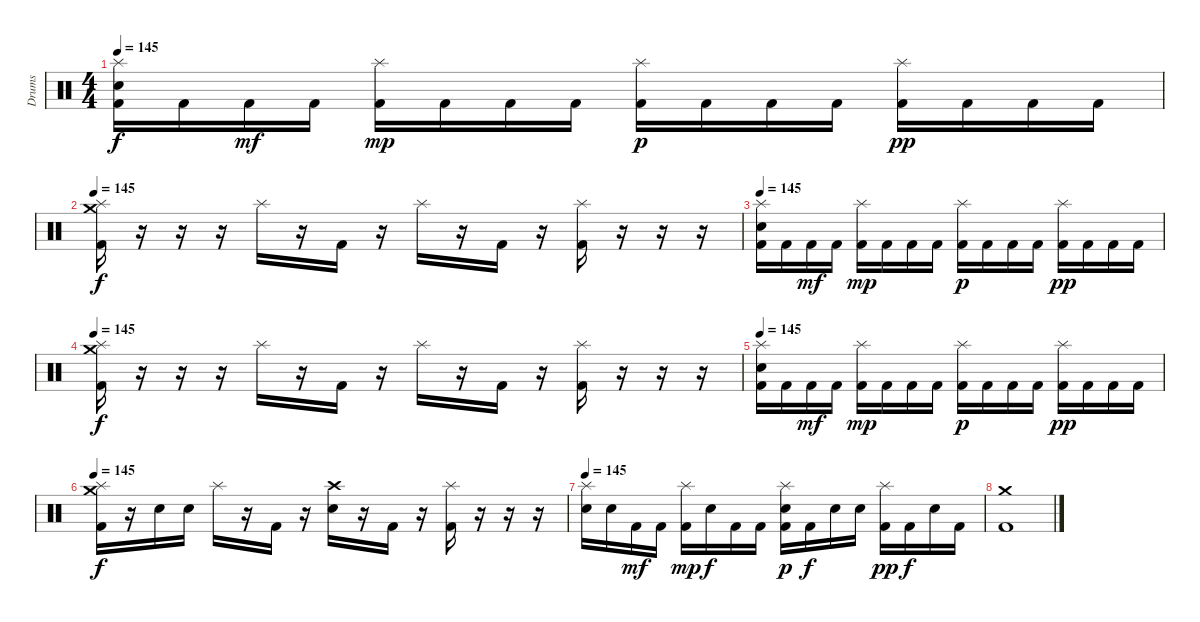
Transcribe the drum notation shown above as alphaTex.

\track ("Drums" "Drums") {instrument percussion}
\staff {score}
\articulation defaults
\ts (4 4)
\tempo 145
\clef neutral
\ks c
("Splash (hit)" "Electric Snare (hit)" "Kick (hit) 2").16{dy f} "Kick (hit) 2".16 "Kick (hit) 2".16{dy mf} "Kick (hit) 2".16 ("Splash (hit)" "Kick (hit) 2").16{dy mp} "Kick (hit) 2".16 "Kick (hit) 2".16 "Kick (hit) 2".16 ("Splash (hit)" "Kick (hit) 2").16{dy p} "Kick (hit) 2".16 "Kick (hit) 2".16 "Kick (hit) 2".16 ("Splash (hit)" "Kick (hit) 2").16{dy pp} "Kick (hit) 2".16 "Kick (hit) 2".16 "Kick (hit) 2".16 |
\tempo 145
("Crash medium (hit)" "Splash (hit)" "Kick (hit) 2").16{dy f} r.16 r.16 r.16 "Splash (hit)".16 r.16 "Kick (hit) 2".16 r.16 "Splash (hit)".16 r.16 "Kick (hit) 2".16 r.16 ("Splash (hit)" "Kick (hit) 2").16 r.16 r.16 r.16 |
\tempo 145
("Splash (hit)" "Electric Snare (hit)" "Kick (hit) 2").16 "Kick (hit) 2".16 "Kick (hit) 2".16{dy mf} "Kick (hit) 2".16 ("Splash (hit)" "Kick (hit) 2").16{dy mp} "Kick (hit) 2".16 "Kick (hit) 2".16 "Kick (hit) 2".16 ("Splash (hit)" "Kick (hit) 2").16{dy p} "Kick (hit) 2".16 "Kick (hit) 2".16 "Kick (hit) 2".16 ("Splash (hit)" "Kick (hit) 2").16{dy pp} "Kick (hit) 2".16 "Kick (hit) 2".16 "Kick (hit) 2".16 |
\tempo 145
("Crash medium (hit)" "Splash (hit)" "Kick (hit) 2").16{dy f} r.16 r.16 r.16 "Splash (hit)".16 r.16 "Kick (hit) 2".16 r.16 "Splash (hit)".16 r.16 "Kick (hit) 2".16 r.16 ("Splash (hit)" "Kick (hit) 2").16 r.16 r.16 r.16 |
\tempo 145
("Splash (hit)" "Electric Snare (hit)" "Kick (hit) 2").16 "Kick (hit) 2".16 "Kick (hit) 2".16{dy mf} "Kick (hit) 2".16 ("Splash (hit)" "Kick (hit) 2").16{dy mp} "Kick (hit) 2".16 "Kick (hit) 2".16 "Kick (hit) 2".16 ("Splash (hit)" "Kick (hit) 2").16{dy p} "Kick (hit) 2".16 "Kick (hit) 2".16 "Kick (hit) 2".16 ("Splash (hit)" "Kick (hit) 2").16{dy pp} "Kick (hit) 2".16 "Kick (hit) 2".16 "Kick (hit) 2".16 |
\tempo 145
("Crash medium (hit)" "Splash (hit)" "Kick (hit) 2").16{dy f} r.16 "Electric Snare (hit)".16 "Electric Snare (hit)".16 "Splash (hit)".16 r.16 "Kick (hit) 2".16 r.16 ("Crash high (hit)" "Electric Snare (hit)").16 r.16 "Kick (hit) 2".16 r.16 ("Splash (hit)" "Kick (hit) 2").16 r.16 r.16 r.16 |
\tempo 145
("Splash (hit)" "Electric Snare (hit)").16 "Electric Snare (hit)".16 "Kick (hit) 2".16{dy mf} "Kick (hit) 2".16 ("Splash (hit)" "Kick (hit) 2").16{dy mp} "Electric Snare (hit)".16{dy f} "Kick (hit) 2".16 "Kick (hit) 2".16 ("Splash (hit)" "Electric Snare (hit)" "Kick (hit) 2").16{dy p} "Kick (hit) 2".16{dy f} "Electric Snare (hit)".16 "Electric Snare (hit)".16 ("Splash (hit)" "Kick (hit) 2").16{dy pp} "Kick (hit) 2".16{dy f} "Electric Snare (hit)".16 "Kick (hit) 2".16 |
("Crash medium (hit)" "Kick (hit) 2").1
